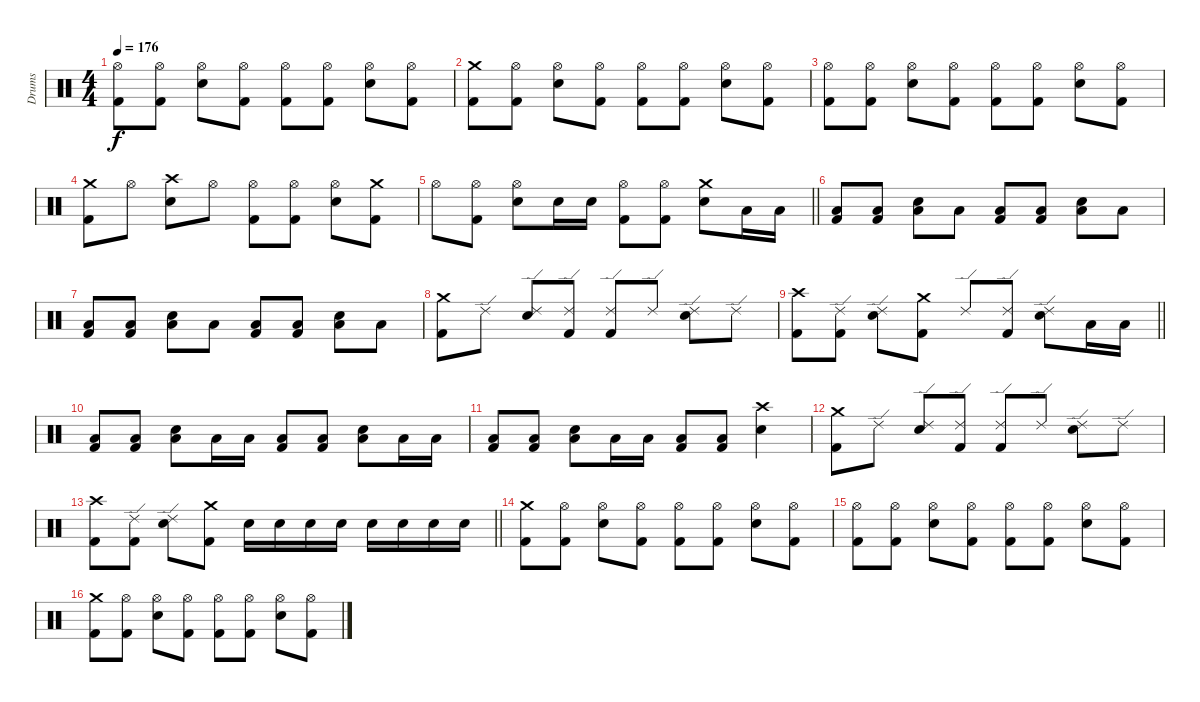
\track ("Drums" "Drums") {instrument percussion}
\staff {score}
\articulation defaults
\ts (4 4)
\tempo 176
\clef neutral
\ks c
("Hi-Hat (open)" "Kick (hit) 2").8{dy f} ("Hi-Hat (open)" "Kick (hit) 2").8 ("Hi-Hat (open)" "Electric Snare (hit)").8 ("Hi-Hat (open)" "Kick (hit) 2").8 ("Hi-Hat (open)" "Kick (hit) 2").8 ("Hi-Hat (open)" "Kick (hit) 2").8 ("Hi-Hat (open)" "Electric Snare (hit)").8 ("Hi-Hat (open)" "Kick (hit) 2").8 |
("Crash medium (hit)" "Kick (hit) 2").8 ("Hi-Hat (open)" "Kick (hit) 2").8 ("Hi-Hat (open)" "Electric Snare (hit)").8 ("Hi-Hat (open)" "Kick (hit) 2").8 ("Hi-Hat (open)" "Kick (hit) 2").8 ("Hi-Hat (open)" "Kick (hit) 2").8 ("Hi-Hat (open)" "Electric Snare (hit)").8 ("Hi-Hat (open)" "Kick (hit) 2").8 |
("Hi-Hat (open)" "Kick (hit) 2").8 ("Hi-Hat (open)" "Kick (hit) 2").8 ("Hi-Hat (open)" "Electric Snare (hit)").8 ("Hi-Hat (open)" "Kick (hit) 2").8 ("Hi-Hat (open)" "Kick (hit) 2").8 ("Hi-Hat (open)" "Kick (hit) 2").8 ("Hi-Hat (open)" "Electric Snare (hit)").8 ("Hi-Hat (open)" "Kick (hit) 2").8 |
("Crash medium (hit)" "Kick (hit) 2").8 "Hi-Hat (open)".8 ("Crash high (hit)" "Electric Snare (hit)").8 "Hi-Hat (open)".8 ("Hi-Hat (open)" "Kick (hit) 2").8 ("Hi-Hat (open)" "Kick (hit) 2").8 ("Hi-Hat (open)" "Electric Snare (hit)").8 ("Crash medium (hit)" "Kick (hit) 2").8 |
\barLineRight lightlight "Hi-Hat (open)".8
("Hi-Hat (open)" "Kick (hit) 2").8 ("Hi-Hat (open)" "Electric Snare (hit)").8 "Electric Snare (hit)".16 "Electric Snare (hit)".16 ("Hi-Hat (open)" "Kick (hit) 2").8 ("Hi-Hat (open)" "Kick (hit) 2").8 ("Crash medium (hit)" "Electric Snare (hit)").8 "Low Floor Tom (hit)".16 "Low Floor Tom (hit)".16 |
("Low Floor Tom (hit)" "Kick (hit) 2").8 ("Low Floor Tom (hit)" "Kick (hit) 2").8 ("Electric Snare (hit)" "Low Floor Tom (hit)").8 "Low Floor Tom (hit)".8 ("Low Floor Tom (hit)" "Kick (hit) 2").8 ("Low Floor Tom (hit)" "Kick (hit) 2").8 ("Electric Snare (hit)" "Low Floor Tom (hit)").8 "Low Floor Tom (hit)".8 |
("Low Floor Tom (hit)" "Kick (hit) 2").8 ("Low Floor Tom (hit)" "Kick (hit) 2").8 ("Electric Snare (hit)" "Low Floor Tom (hit)").8 "Low Floor Tom (hit)".8 ("Low Floor Tom (hit)" "Kick (hit) 2").8 ("Low Floor Tom (hit)" "Kick (hit) 2").8 ("Electric Snare (hit)" "Low Floor Tom (hit)").8 "Low Floor Tom (hit)".8 |
("Crash medium (hit)" "Kick (hit) 2").8 "Ride (edge) 2".8 ("Ride (edge) 2" "Electric Snare (hit)").8 ("Ride (edge) 2" "Kick (hit) 2").8 ("Ride (edge) 2" "Kick (hit) 2").8 "Ride (edge) 2".8 ("Ride (edge) 2" "Electric Snare (hit)").8 "Ride (edge) 2".8 |
\barLineRight lightlight
("Crash high (hit)" "Kick (hit) 2").8 ("Ride (edge) 2" "Kick (hit) 2").8 ("Ride (edge) 2" "Electric Snare (hit)").8 ("Crash medium (hit)" "Kick (hit) 2").8 "Ride (edge) 2".8 ("Ride (edge) 2" "Kick (hit) 2").8 ("Ride (edge) 2" "Electric Snare (hit)").8 "Low Floor Tom (hit)".16 "Low Floor Tom (hit)".16 |
("Low Floor Tom (hit)" "Kick (hit) 2").8 ("Low Floor Tom (hit)" "Kick (hit) 2").8 ("Electric Snare (hit)" "Low Floor Tom (hit)").8 "Low Floor Tom (hit)".16 "Low Floor Tom (hit)".16 ("Low Floor Tom (hit)" "Kick (hit) 2").8 ("Low Floor Tom (hit)" "Kick (hit) 2").8 ("Electric Snare (hit)" "Low Floor Tom (hit)").8 "Low Floor Tom (hit)".16 "Low Floor Tom (hit)".16 |
("Low Floor Tom (hit)" "Kick (hit) 2").8 ("Low Floor Tom (hit)" "Kick (hit) 2").8 ("Electric Snare (hit)" "Low Floor Tom (hit)").8 "Low Floor Tom (hit)".16 "Low Floor Tom (hit)".16 ("Low Floor Tom (hit)" "Kick (hit) 2").8 ("Low Floor Tom (hit)" "Kick (hit) 2").8 ("Crash high (hit)" "Electric Snare (hit)").4 |
("Crash medium (hit)" "Kick (hit) 2").8 "Ride (edge) 2".8 ("Ride (edge) 2" "Electric Snare (hit)").8 ("Ride (edge) 2" "Kick (hit) 2").8 ("Ride (edge) 2" "Kick (hit) 2").8 "Ride (edge) 2".8 ("Ride (edge) 2" "Electric Snare (hit)").8 "Ride (edge) 2".8 |
\barLineRight lightlight
("Crash high (hit)" "Kick (hit) 2").8 ("Ride (edge) 2" "Kick (hit) 2").8 ("Ride (edge) 2" "Electric Snare (hit)").8 ("Crash medium (hit)" "Kick (hit) 2").8 "Electric Snare (hit)".16 "Electric Snare (hit)".16 "Electric Snare (hit)".16 "Electric Snare (hit)".16 "Electric Snare (hit)".16 "Electric Snare (hit)".16 "Electric Snare (hit)".16 "Electric Snare (hit)".16 |
("Crash medium (hit)" "Kick (hit) 2").8 ("Hi-Hat (open)" "Kick (hit) 2").8 ("Hi-Hat (open)" "Electric Snare (hit)").8 ("Hi-Hat (open)" "Kick (hit) 2").8 ("Hi-Hat (open)" "Kick (hit) 2").8 ("Hi-Hat (open)" "Kick (hit) 2").8 ("Hi-Hat (open)" "Electric Snare (hit)").8 ("Hi-Hat (open)" "Kick (hit) 2").8 |
("Hi-Hat (open)" "Kick (hit) 2").8 ("Hi-Hat (open)" "Kick (hit) 2").8 ("Hi-Hat (open)" "Electric Snare (hit)").8 ("Hi-Hat (open)" "Kick (hit) 2").8 ("Hi-Hat (open)" "Kick (hit) 2").8 ("Hi-Hat (open)" "Kick (hit) 2").8 ("Hi-Hat (open)" "Electric Snare (hit)").8 ("Hi-Hat (open)" "Kick (hit) 2").8 |
("Crash medium (hit)" "Kick (hit) 2").8 ("Hi-Hat (open)" "Kick (hit) 2").8 ("Hi-Hat (open)" "Electric Snare (hit)").8 ("Hi-Hat (open)" "Kick (hit) 2").8 ("Hi-Hat (open)" "Kick (hit) 2").8 ("Hi-Hat (open)" "Kick (hit) 2").8 ("Hi-Hat (open)" "Electric Snare (hit)").8 ("Hi-Hat (open)" "Kick (hit) 2").8
